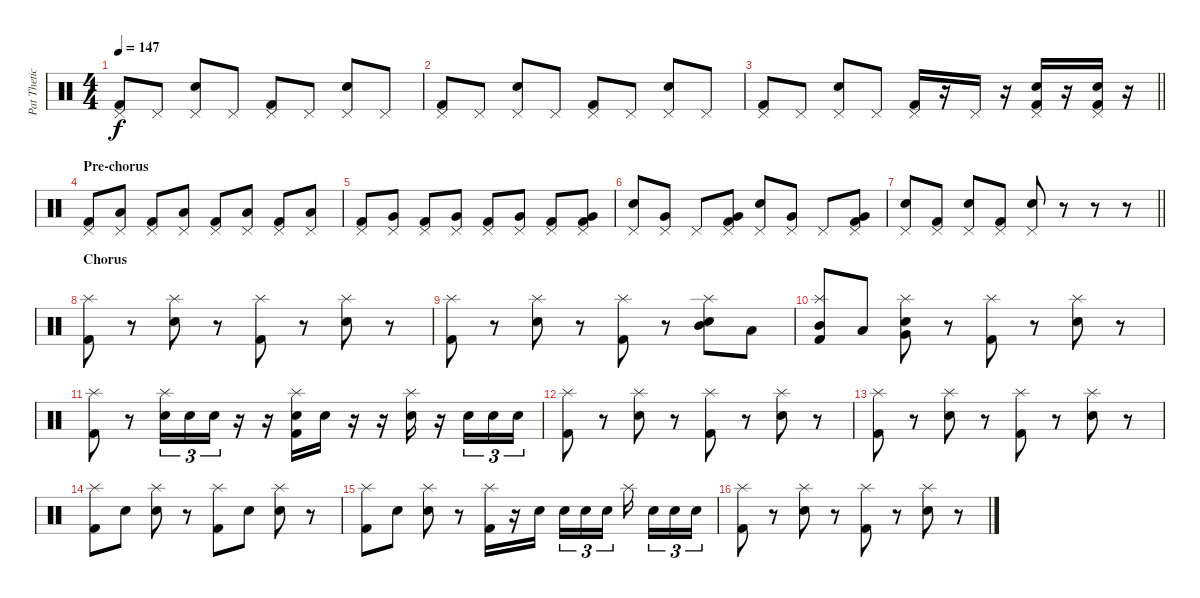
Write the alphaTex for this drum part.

\track ("Pat Thetic Drums" "Pat Thetic") {instrument percussion}
\staff {score}
\articulation defaults
\ts (4 4)
\tempo 147
\clef neutral
\ks c
("Pedal Hi-Hat (hit)" "Kick (hit) 2").8{dy f} "Pedal Hi-Hat (hit)".8 ("Pedal Hi-Hat (hit)" "Snare (hit) 2").8 "Pedal Hi-Hat (hit)".8 ("Pedal Hi-Hat (hit)" "Kick (hit) 2").8 "Pedal Hi-Hat (hit)".8 ("Pedal Hi-Hat (hit)" "Snare (hit) 2").8 "Pedal Hi-Hat (hit)".8 |
("Pedal Hi-Hat (hit)" "Kick (hit) 2").8 "Pedal Hi-Hat (hit)".8 ("Pedal Hi-Hat (hit)" "Snare (hit) 2").8 "Pedal Hi-Hat (hit)".8 ("Pedal Hi-Hat (hit)" "Kick (hit) 2").8 "Pedal Hi-Hat (hit)".8 ("Pedal Hi-Hat (hit)" "Snare (hit) 2").8 "Pedal Hi-Hat (hit)".8 |
\barLineRight lightlight
("Pedal Hi-Hat (hit)" "Kick (hit) 2").8 "Pedal Hi-Hat (hit)".8 ("Pedal Hi-Hat (hit)" "Snare (hit) 2").8 "Pedal Hi-Hat (hit)".8 ("Pedal Hi-Hat (hit)" "Kick (hit) 2").16 r.16 "Pedal Hi-Hat (hit)".16 r.16 ("Pedal Hi-Hat (hit)" "Kick (hit) 2" "Snare (hit) 2").16 r.16 ("Pedal Hi-Hat (hit)" "Kick (hit) 2" "Snare (hit) 2").16 r.16 |
\section ("" "Pre-chorus")
("Pedal Hi-Hat (hit)" "Kick (hit) 2").8 ("Pedal Hi-Hat (hit)" "Low Tom (hit)").8 ("Pedal Hi-Hat (hit)" "Kick (hit) 2").8 ("Pedal Hi-Hat (hit)" "Low Tom (hit)").8 ("Pedal Hi-Hat (hit)" "Kick (hit) 2").8 ("Pedal Hi-Hat (hit)" "Low Tom (hit)").8 ("Pedal Hi-Hat (hit)" "Kick (hit) 2").8 ("Pedal Hi-Hat (hit)" "Low Tom (hit)").8 |
("Pedal Hi-Hat (hit)" "Kick (hit) 2").8 ("Pedal Hi-Hat (hit)" "Very Low Tom (hit)").8 ("Pedal Hi-Hat (hit)" "Kick (hit) 2").8 ("Pedal Hi-Hat (hit)" "Very Low Tom (hit)").8 ("Pedal Hi-Hat (hit)" "Kick (hit) 2").8 ("Pedal Hi-Hat (hit)" "Very Low Tom (hit)").8 ("Pedal Hi-Hat (hit)" "Kick (hit) 2").8 ("Pedal Hi-Hat (hit)" "Kick (hit) 2" "Very Low Tom (hit)").8 |
("Pedal Hi-Hat (hit)" "Snare (hit) 2").8 ("Pedal Hi-Hat (hit)" "Very Low Tom (hit)").8 "Pedal Hi-Hat (hit)".8 ("Pedal Hi-Hat (hit)" "Kick (hit) 2" "Very Low Tom (hit)").8 ("Pedal Hi-Hat (hit)" "Snare (hit) 2").8 ("Pedal Hi-Hat (hit)" "Very Low Tom (hit)").8 "Pedal Hi-Hat (hit)".8 ("Pedal Hi-Hat (hit)" "Kick (hit) 2" "Very Low Tom (hit)").8 |
\barLineRight lightlight
("Pedal Hi-Hat (hit)" "Snare (hit) 2").8 ("Pedal Hi-Hat (hit)" "Kick (hit) 2").8 ("Pedal Hi-Hat (hit)" "Snare (hit) 2").8 ("Pedal Hi-Hat (hit)" "Kick (hit) 2").8 ("Pedal Hi-Hat (hit)" "Snare (hit) 2").8 r.8 r.8 r.8 |
\section ("" "Chorus")
("Splash (hit)" "Kick (hit) 2").8 r.8 ("Splash (hit)" "Snare (hit) 2").8 r.8 ("Splash (hit)" "Kick (hit) 2").8 r.8 ("Splash (hit)" "Snare (hit) 2").8 r.8 |
("Splash (hit)" "Kick (hit) 2").8 r.8 ("Splash (hit)" "Snare (hit) 2").8 r.8 ("Splash (hit)" "Kick (hit) 2").8 r.8 ("Splash (hit)" "Snare (hit) 2" "Mid Tom (hit)").8 "Low Floor Tom (hit)".8 |
("Splash (hit)" "Kick (hit) 2" "Mid Tom (hit)").8 "Low Floor Tom (hit)".8 ("Splash (hit)" "Snare (hit) 2" "Very Low Tom (hit)").8 r.8 ("Splash (hit)" "Kick (hit) 2").8 r.8 ("Splash (hit)" "Snare (hit) 2").8 r.8 |
("Splash (hit)" "Kick (hit) 2").8 r.8 ("Splash (hit)" "Snare (hit) 2").16{tu (3 2)} "Snare (hit) 2".16{tu (3 2)} "Snare (hit) 2".16{tu (3 2)} r.16 r.16 ("Splash (hit)" "Kick (hit) 2" "Snare (hit) 2").16 "Snare (hit) 2".16 r.16 r.16 ("Splash (hit)" "Snare (hit) 2").16 r.16 "Snare (hit) 2".16{tu (3 2)} "Snare (hit) 2".16{tu (3 2)} "Snare (hit) 2".16{tu (3 2)} |
("Splash (hit)" "Kick (hit) 2").8 r.8 ("Splash (hit)" "Snare (hit) 2").8 r.8 ("Splash (hit)" "Kick (hit) 2").8 r.8 ("Splash (hit)" "Snare (hit) 2").8 r.8 |
("Splash (hit)" "Kick (hit) 2").8 r.8 ("Splash (hit)" "Snare (hit) 2").8 r.8 ("Splash (hit)" "Kick (hit) 2").8 r.8 ("Splash (hit)" "Snare (hit) 2").8 r.8 |
("Splash (hit)" "Kick (hit) 2").8 "Snare (hit) 2".8 ("Splash (hit)" "Snare (hit) 2").8 r.8 ("Splash (hit)" "Kick (hit) 2").8 "Snare (hit) 2".8 ("Splash (hit)" "Snare (hit) 2").8 r.8 |
("Splash (hit)" "Kick (hit) 2").8 "Snare (hit) 2".8 ("Splash (hit)" "Snare (hit) 2").8 r.8 ("Splash (hit)" "Kick (hit) 2").16 r.16 "Snare (hit) 2".16{beam splitsecondary} "Snare (hit) 2".16{tu (3 2)} "Snare (hit) 2".16{tu (3 2)} "Snare (hit) 2".16{tu (3 2) beam splitsecondary} "Splash (hit)".16{beam splitsecondary} "Snare (hit) 2".16{tu (3 2)} "Snare (hit) 2".16{tu (3 2)} "Snare (hit) 2".16{tu (3 2)} |
("Splash (hit)" "Kick (hit) 2").8 r.8 ("Splash (hit)" "Snare (hit) 2").8 r.8 ("Splash (hit)" "Kick (hit) 2").8 r.8 ("Splash (hit)" "Snare (hit) 2").8 r.8
